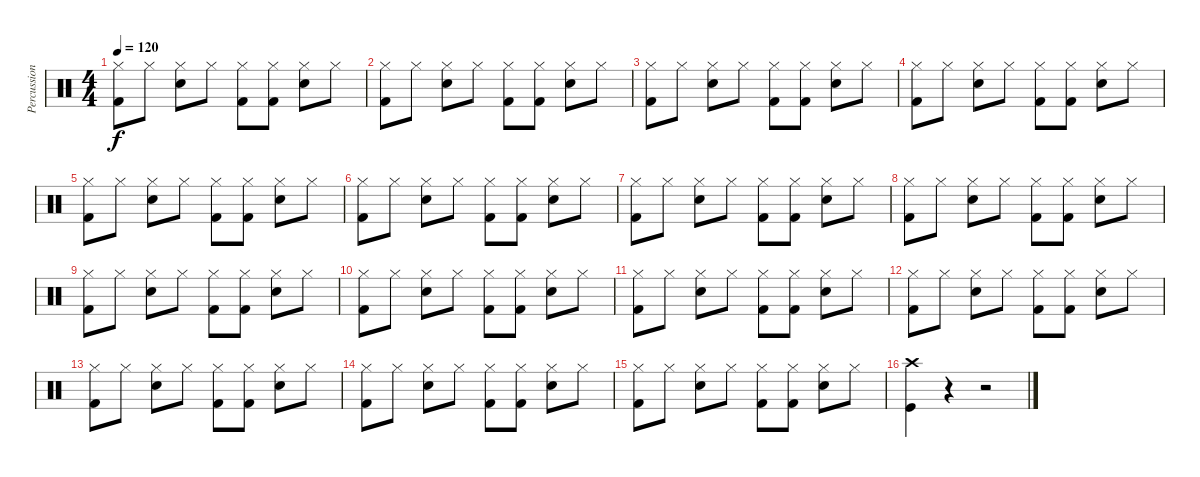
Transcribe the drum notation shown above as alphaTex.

\track ("Percussion" "Percussion") {instrument percussion}
\staff {score}
\articulation defaults
\ts (4 4)
\tempo 120
\clef neutral
\ks c
("Hi-Hat (closed)" "Kick (hit) 2").8{dy f} "Hi-Hat (closed)".8 ("Hi-Hat (closed)" "Electric Snare (hit)").8 "Hi-Hat (closed)".8 ("Hi-Hat (closed)" "Kick (hit) 2").8 ("Hi-Hat (closed)" "Kick (hit) 2").8 ("Hi-Hat (closed)" "Electric Snare (hit)").8 "Hi-Hat (closed)".8 |
("Hi-Hat (closed)" "Kick (hit) 2").8 "Hi-Hat (closed)".8 ("Hi-Hat (closed)" "Electric Snare (hit)").8 "Hi-Hat (closed)".8 ("Hi-Hat (closed)" "Kick (hit) 2").8 ("Hi-Hat (closed)" "Kick (hit) 2").8 ("Hi-Hat (closed)" "Electric Snare (hit)").8 "Hi-Hat (closed)".8 |
("Hi-Hat (closed)" "Kick (hit) 2").8 "Hi-Hat (closed)".8 ("Hi-Hat (closed)" "Electric Snare (hit)").8 "Hi-Hat (closed)".8 ("Hi-Hat (closed)" "Kick (hit) 2").8 ("Hi-Hat (closed)" "Kick (hit) 2").8 ("Hi-Hat (closed)" "Electric Snare (hit)").8 "Hi-Hat (closed)".8 |
("Hi-Hat (closed)" "Kick (hit) 2").8 "Hi-Hat (closed)".8 ("Hi-Hat (closed)" "Electric Snare (hit)").8 "Hi-Hat (closed)".8 ("Hi-Hat (closed)" "Kick (hit) 2").8 ("Hi-Hat (closed)" "Kick (hit) 2").8 ("Hi-Hat (closed)" "Electric Snare (hit)").8 "Hi-Hat (closed)".8 |
("Hi-Hat (closed)" "Kick (hit) 2").8 "Hi-Hat (closed)".8 ("Hi-Hat (closed)" "Electric Snare (hit)").8 "Hi-Hat (closed)".8 ("Hi-Hat (closed)" "Kick (hit) 2").8 ("Hi-Hat (closed)" "Kick (hit) 2").8 ("Hi-Hat (closed)" "Electric Snare (hit)").8 "Hi-Hat (closed)".8 |
("Hi-Hat (closed)" "Kick (hit) 2").8 "Hi-Hat (closed)".8 ("Hi-Hat (closed)" "Electric Snare (hit)").8 "Hi-Hat (closed)".8 ("Hi-Hat (closed)" "Kick (hit) 2").8 ("Hi-Hat (closed)" "Kick (hit) 2").8 ("Hi-Hat (closed)" "Electric Snare (hit)").8 "Hi-Hat (closed)".8 |
("Hi-Hat (closed)" "Kick (hit) 2").8 "Hi-Hat (closed)".8 ("Hi-Hat (closed)" "Electric Snare (hit)").8 "Hi-Hat (closed)".8 ("Hi-Hat (closed)" "Kick (hit) 2").8 ("Hi-Hat (closed)" "Kick (hit) 2").8 ("Hi-Hat (closed)" "Electric Snare (hit)").8 "Hi-Hat (closed)".8 |
("Hi-Hat (closed)" "Kick (hit) 2").8 "Hi-Hat (closed)".8 ("Hi-Hat (closed)" "Electric Snare (hit)").8 "Hi-Hat (closed)".8 ("Hi-Hat (closed)" "Kick (hit) 2").8 ("Hi-Hat (closed)" "Kick (hit) 2").8 ("Hi-Hat (closed)" "Electric Snare (hit)").8 "Hi-Hat (closed)".8 |
("Hi-Hat (closed)" "Kick (hit) 2").8 "Hi-Hat (closed)".8 ("Hi-Hat (closed)" "Electric Snare (hit)").8 "Hi-Hat (closed)".8 ("Hi-Hat (closed)" "Kick (hit) 2").8 ("Hi-Hat (closed)" "Kick (hit) 2").8 ("Hi-Hat (closed)" "Electric Snare (hit)").8 "Hi-Hat (closed)".8 |
("Hi-Hat (closed)" "Kick (hit) 2").8 "Hi-Hat (closed)".8 ("Hi-Hat (closed)" "Electric Snare (hit)").8 "Hi-Hat (closed)".8 ("Hi-Hat (closed)" "Kick (hit) 2").8 ("Hi-Hat (closed)" "Kick (hit) 2").8 ("Hi-Hat (closed)" "Electric Snare (hit)").8 "Hi-Hat (closed)".8 |
("Hi-Hat (closed)" "Kick (hit) 2").8 "Hi-Hat (closed)".8 ("Hi-Hat (closed)" "Electric Snare (hit)").8 "Hi-Hat (closed)".8 ("Hi-Hat (closed)" "Kick (hit) 2").8 ("Hi-Hat (closed)" "Kick (hit) 2").8 ("Hi-Hat (closed)" "Electric Snare (hit)").8 "Hi-Hat (closed)".8 |
("Hi-Hat (closed)" "Kick (hit) 2").8 "Hi-Hat (closed)".8 ("Hi-Hat (closed)" "Electric Snare (hit)").8 "Hi-Hat (closed)".8 ("Hi-Hat (closed)" "Kick (hit) 2").8 ("Hi-Hat (closed)" "Kick (hit) 2").8 ("Hi-Hat (closed)" "Electric Snare (hit)").8 "Hi-Hat (closed)".8 |
("Hi-Hat (closed)" "Kick (hit) 2").8 "Hi-Hat (closed)".8 ("Hi-Hat (closed)" "Electric Snare (hit)").8 "Hi-Hat (closed)".8 ("Hi-Hat (closed)" "Kick (hit) 2").8 ("Hi-Hat (closed)" "Kick (hit) 2").8 ("Hi-Hat (closed)" "Electric Snare (hit)").8 "Hi-Hat (closed)".8 |
("Hi-Hat (closed)" "Kick (hit) 2").8 "Hi-Hat (closed)".8 ("Hi-Hat (closed)" "Electric Snare (hit)").8 "Hi-Hat (closed)".8 ("Hi-Hat (closed)" "Kick (hit) 2").8 ("Hi-Hat (closed)" "Kick (hit) 2").8 ("Hi-Hat (closed)" "Electric Snare (hit)").8 "Hi-Hat (closed)".8 |
("Hi-Hat (closed)" "Kick (hit) 2").8 "Hi-Hat (closed)".8 ("Hi-Hat (closed)" "Electric Snare (hit)").8 "Hi-Hat (closed)".8 ("Hi-Hat (closed)" "Kick (hit) 2").8 ("Hi-Hat (closed)" "Kick (hit) 2").8 ("Hi-Hat (closed)" "Electric Snare (hit)").8 "Hi-Hat (closed)".8 |
("Crash high (hit)" "Kick (hit)").4 r.4 r.2
